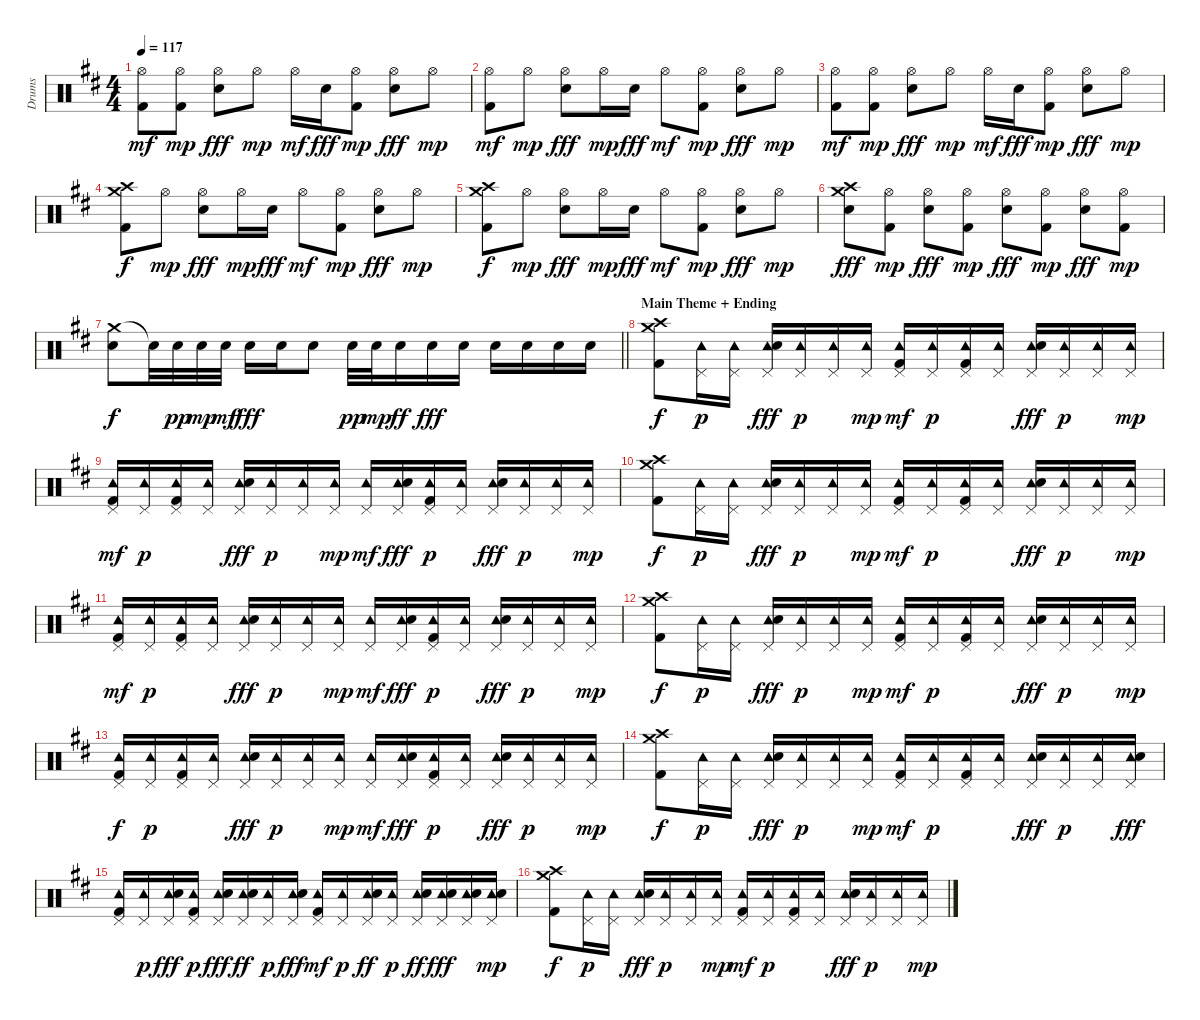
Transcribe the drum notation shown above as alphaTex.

\track ("Drums" "Drums") {instrument percussion}
\staff {score}
\articulation defaults
\ts (4 4)
\tempo 117
\clef neutral
\ks d
("Hi-Hat (open)" "Kick (hit) 2").8{dy mf} ("Hi-Hat (open)" "Kick (hit) 2").8{dy mp} ("Hi-Hat (open)" "Electric Snare (hit)").8{dy fff} "Hi-Hat (open)".8{dy mp} "Hi-Hat (open)".16{dy mf} "Electric Snare (hit)".16{dy fff} ("Hi-Hat (open)" "Kick (hit) 2").8{dy mp} ("Hi-Hat (open)" "Electric Snare (hit)").8{dy fff} "Hi-Hat (open)".8{dy mp} |
("Hi-Hat (open)" "Kick (hit) 2").8{dy mf} "Hi-Hat (open)".8{dy mp} ("Hi-Hat (open)" "Electric Snare (hit)").8{dy fff} "Hi-Hat (open)".16{dy mp} "Electric Snare (hit)".16{dy fff} "Hi-Hat (open)".8{dy mf} ("Hi-Hat (open)" "Kick (hit) 2").8{dy mp} ("Hi-Hat (open)" "Electric Snare (hit)").8{dy fff} "Hi-Hat (open)".8{dy mp} |
("Hi-Hat (open)" "Kick (hit) 2").8{dy mf} ("Hi-Hat (open)" "Kick (hit) 2").8{dy mp} ("Hi-Hat (open)" "Electric Snare (hit)").8{dy fff} "Hi-Hat (open)".8{dy mp} "Hi-Hat (open)".16{dy mf} "Electric Snare (hit)".16{dy fff} ("Hi-Hat (open)" "Kick (hit) 2").8{dy mp} ("Hi-Hat (open)" "Electric Snare (hit)").8{dy fff} "Hi-Hat (open)".8{dy mp} |
("Crash medium (hit)" "Crash high (hit)" "Kick (hit) 2").8{dy f} "Hi-Hat (open)".8{dy mp} ("Hi-Hat (open)" "Electric Snare (hit)").8{dy fff} "Hi-Hat (open)".16{dy mp} "Electric Snare (hit)".16{dy fff} "Hi-Hat (open)".8{dy mf} ("Hi-Hat (open)" "Kick (hit) 2").8{dy mp} ("Hi-Hat (open)" "Electric Snare (hit)").8{dy fff} "Hi-Hat (open)".8{dy mp} |
("Crash medium (hit)" "Kick (hit) 2" "Crash high (hit)").8{dy f} "Hi-Hat (open)".8{dy mp} ("Hi-Hat (open)" "Electric Snare (hit)").8{dy fff} "Hi-Hat (open)".16{dy mp} "Electric Snare (hit)".16{dy fff} "Hi-Hat (open)".8{dy mf} ("Hi-Hat (open)" "Kick (hit) 2").8{dy mp} ("Hi-Hat (open)" "Electric Snare (hit)").8{dy fff} "Hi-Hat (open)".8{dy mp} |
("Crash high (hit)" "Crash medium (hit)" "Electric Snare (hit)").8{dy fff} ("Hi-Hat (open)" "Kick (hit) 2").8{dy mp} ("Hi-Hat (open)" "Electric Snare (hit)").8{dy fff} ("Hi-Hat (open)" "Kick (hit) 2").8{dy mp} ("Hi-Hat (open)" "Electric Snare (hit)").8{dy fff} ("Hi-Hat (open)" "Kick (hit) 2").8{dy mp} ("Hi-Hat (open)" "Electric Snare (hit)").8{dy fff} ("Hi-Hat (open)" "Kick (hit) 2").8{dy mp} |
\barLineRight lightlight
("Crash medium (hit)" "Electric Snare (hit)").8{dy f} "Snare (hit)"{t}.32 "Electric Snare (hit)".32{dy pp} "Electric Snare (hit)".32{dy mp} "Electric Snare (hit)".32{dy mf} "Electric Snare (hit)".16{dy fff} "Electric Snare (hit)".16 "Electric Snare (hit)".8 "Electric Snare (hit)".32{dy pp} "Electric Snare (hit)".32{dy mp} "Electric Snare (hit)".16{dy ff} "Electric Snare (hit)".16{dy fff} "Electric Snare (hit)".16 "Electric Snare (hit)".16 "Electric Snare (hit)".16 "Electric Snare (hit)".16 "Electric Snare (hit)".16 |
\section ("" "Main Theme + Ending")
("Crash medium (hit)" "Crash high (hit)" "Kick (hit) 2").8{dy f} ("Tambourine (hit)" "Pedal Hi-Hat (hit)").16{dy p} ("Tambourine (hit)" "Pedal Hi-Hat (hit)").16 ("Tambourine (hit)" "Pedal Hi-Hat (hit)" "Electric Snare (hit)").16{dy fff} ("Tambourine (hit)" "Pedal Hi-Hat (hit)").16{dy p} ("Tambourine (hit)" "Pedal Hi-Hat (hit)").16 ("Tambourine (hit)" "Pedal Hi-Hat (hit)").16{dy mp} ("Pedal Hi-Hat (hit)" "Tambourine (hit)" "Kick (hit) 2").16{dy mf} ("Tambourine (hit)" "Pedal Hi-Hat (hit)").16{dy p} ("Pedal Hi-Hat (hit)" "Tambourine (hit)" "Kick (hit) 2").16 ("Pedal Hi-Hat (hit)" "Tambourine (hit)").16 ("Tambourine (hit)" "Pedal Hi-Hat (hit)" "Electric Snare (hit)").16{dy fff} ("Pedal Hi-Hat (hit)" "Tambourine (hit)").16{dy p} ("Pedal Hi-Hat (hit)" "Tambourine (hit)").16 ("Tambourine (hit)" "Pedal Hi-Hat (hit)").16{dy mp} |
("Tambourine (hit)" "Pedal Hi-Hat (hit)" "Kick (hit) 2").16{dy mf} ("Tambourine (hit)" "Pedal Hi-Hat (hit)").16{dy p} ("Pedal Hi-Hat (hit)" "Tambourine (hit)" "Kick (hit) 2").16 ("Tambourine (hit)" "Pedal Hi-Hat (hit)").16 ("Pedal Hi-Hat (hit)" "Tambourine (hit)" "Electric Snare (hit)").16{dy fff} ("Pedal Hi-Hat (hit)" "Tambourine (hit)").16{dy p} ("Tambourine (hit)" "Pedal Hi-Hat (hit)").16 ("Tambourine (hit)" "Pedal Hi-Hat (hit)").16{dy mp} ("Pedal Hi-Hat (hit)" "Tambourine (hit)").16{dy mf} ("Pedal Hi-Hat (hit)" "Tambourine (hit)" "Electric Snare (hit)").16{dy fff} ("Tambourine (hit)" "Pedal Hi-Hat (hit)" "Kick (hit) 2").16{dy p} ("Tambourine (hit)" "Pedal Hi-Hat (hit)").16 ("Pedal Hi-Hat (hit)" "Tambourine (hit)" "Electric Snare (hit)").16{dy fff} ("Tambourine (hit)" "Pedal Hi-Hat (hit)").16{dy p} ("Tambourine (hit)" "Pedal Hi-Hat (hit)").16 ("Pedal Hi-Hat (hit)" "Tambourine (hit)").16{dy mp} |
("Crash high (hit)" "Crash medium (hit)" "Kick (hit) 2").8{dy f} ("Tambourine (hit)" "Pedal Hi-Hat (hit)").16{dy p} ("Pedal Hi-Hat (hit)" "Tambourine (hit)").16 ("Pedal Hi-Hat (hit)" "Tambourine (hit)" "Electric Snare (hit)").16{dy fff} ("Pedal Hi-Hat (hit)" "Tambourine (hit)").16{dy p} ("Pedal Hi-Hat (hit)" "Tambourine (hit)").16 ("Pedal Hi-Hat (hit)" "Tambourine (hit)").16{dy mp} ("Pedal Hi-Hat (hit)" "Tambourine (hit)" "Kick (hit) 2").16{dy mf} ("Pedal Hi-Hat (hit)" "Tambourine (hit)").16{dy p} ("Pedal Hi-Hat (hit)" "Tambourine (hit)" "Kick (hit) 2").16 ("Pedal Hi-Hat (hit)" "Tambourine (hit)").16 ("Pedal Hi-Hat (hit)" "Tambourine (hit)" "Electric Snare (hit)").16{dy fff} ("Tambourine (hit)" "Pedal Hi-Hat (hit)").16{dy p} ("Tambourine (hit)" "Pedal Hi-Hat (hit)").16 ("Pedal Hi-Hat (hit)" "Tambourine (hit)").16{dy mp} |
("Tambourine (hit)" "Pedal Hi-Hat (hit)" "Kick (hit) 2").16{dy mf} ("Tambourine (hit)" "Pedal Hi-Hat (hit)").16{dy p} ("Pedal Hi-Hat (hit)" "Tambourine (hit)" "Kick (hit) 2").16 ("Tambourine (hit)" "Pedal Hi-Hat (hit)").16 ("Tambourine (hit)" "Pedal Hi-Hat (hit)" "Electric Snare (hit)").16{dy fff} ("Pedal Hi-Hat (hit)" "Tambourine (hit)").16{dy p} ("Tambourine (hit)" "Pedal Hi-Hat (hit)").16 ("Pedal Hi-Hat (hit)" "Tambourine (hit)").16{dy mp} ("Tambourine (hit)" "Pedal Hi-Hat (hit)").16{dy mf} ("Pedal Hi-Hat (hit)" "Tambourine (hit)" "Electric Snare (hit)").16{dy fff} ("Pedal Hi-Hat (hit)" "Tambourine (hit)" "Kick (hit) 2").16{dy p} ("Tambourine (hit)" "Pedal Hi-Hat (hit)").16 ("Pedal Hi-Hat (hit)" "Tambourine (hit)" "Electric Snare (hit)").16{dy fff} ("Pedal Hi-Hat (hit)" "Tambourine (hit)").16{dy p} ("Tambourine (hit)" "Pedal Hi-Hat (hit)").16 ("Tambourine (hit)" "Pedal Hi-Hat (hit)").16{dy mp} |
("Crash medium (hit)" "Crash high (hit)" "Kick (hit) 2").8{dy f} ("Pedal Hi-Hat (hit)" "Tambourine (hit)").16{dy p} ("Pedal Hi-Hat (hit)" "Tambourine (hit)").16 ("Tambourine (hit)" "Pedal Hi-Hat (hit)" "Electric Snare (hit)").16{dy fff} ("Pedal Hi-Hat (hit)" "Tambourine (hit)").16{dy p} ("Pedal Hi-Hat (hit)" "Tambourine (hit)").16 ("Tambourine (hit)" "Pedal Hi-Hat (hit)").16{dy mp} ("Pedal Hi-Hat (hit)" "Tambourine (hit)" "Kick (hit) 2").16{dy mf} ("Pedal Hi-Hat (hit)" "Tambourine (hit)").16{dy p} ("Pedal Hi-Hat (hit)" "Tambourine (hit)" "Kick (hit) 2").16 ("Tambourine (hit)" "Pedal Hi-Hat (hit)").16 ("Pedal Hi-Hat (hit)" "Tambourine (hit)" "Electric Snare (hit)").16{dy fff} ("Tambourine (hit)" "Pedal Hi-Hat (hit)").16{dy p} ("Pedal Hi-Hat (hit)" "Tambourine (hit)").16 ("Pedal Hi-Hat (hit)" "Tambourine (hit)").16{dy mp} |
("Pedal Hi-Hat (hit)" "Tambourine (hit)" "Kick (hit) 2").16{dy f} ("Pedal Hi-Hat (hit)" "Tambourine (hit)").16{dy p} ("Tambourine (hit)" "Pedal Hi-Hat (hit)" "Kick (hit) 2").16 ("Tambourine (hit)" "Pedal Hi-Hat (hit)").16 ("Pedal Hi-Hat (hit)" "Tambourine (hit)" "Electric Snare (hit)").16{dy fff} ("Pedal Hi-Hat (hit)" "Tambourine (hit)").16{dy p} ("Pedal Hi-Hat (hit)" "Tambourine (hit)").16 ("Pedal Hi-Hat (hit)" "Tambourine (hit)").16{dy mp} ("Tambourine (hit)" "Pedal Hi-Hat (hit)").16{dy mf} ("Tambourine (hit)" "Pedal Hi-Hat (hit)" "Electric Snare (hit)").16{dy fff} ("Pedal Hi-Hat (hit)" "Tambourine (hit)" "Kick (hit) 2").16{dy p} ("Pedal Hi-Hat (hit)" "Tambourine (hit)").16 ("Tambourine (hit)" "Pedal Hi-Hat (hit)" "Electric Snare (hit)").16{dy fff} ("Pedal Hi-Hat (hit)" "Tambourine (hit)").16{dy p} ("Tambourine (hit)" "Pedal Hi-Hat (hit)").16 ("Tambourine (hit)" "Pedal Hi-Hat (hit)").16{dy mp} |
("Crash medium (hit)" "Crash high (hit)" "Kick (hit) 2").8{dy f} ("Pedal Hi-Hat (hit)" "Tambourine (hit)").16{dy p} ("Pedal Hi-Hat (hit)" "Tambourine (hit)").16 ("Tambourine (hit)" "Pedal Hi-Hat (hit)" "Electric Snare (hit)").16{dy fff} ("Pedal Hi-Hat (hit)" "Tambourine (hit)").16{dy p} ("Tambourine (hit)" "Pedal Hi-Hat (hit)").16 ("Tambourine (hit)" "Pedal Hi-Hat (hit)").16{dy mp} ("Pedal Hi-Hat (hit)" "Tambourine (hit)" "Kick (hit) 2").16{dy mf} ("Pedal Hi-Hat (hit)" "Tambourine (hit)").16{dy p} ("Pedal Hi-Hat (hit)" "Tambourine (hit)" "Kick (hit) 2").16 ("Pedal Hi-Hat (hit)" "Tambourine (hit)").16 ("Pedal Hi-Hat (hit)" "Tambourine (hit)" "Electric Snare (hit)").16{dy fff} ("Tambourine (hit)" "Pedal Hi-Hat (hit)").16{dy p} ("Pedal Hi-Hat (hit)" "Tambourine (hit)").16 ("Tambourine (hit)" "Pedal Hi-Hat (hit)" "Electric Snare (hit)").16{dy fff} |
("Tambourine (hit)" "Pedal Hi-Hat (hit)" "Kick (hit) 2").16 ("Pedal Hi-Hat (hit)" "Tambourine (hit)").16{dy p} ("Tambourine (hit)" "Pedal Hi-Hat (hit)" "Electric Snare (hit)").16{dy fff} ("Pedal Hi-Hat (hit)" "Tambourine (hit)" "Kick (hit) 2").16{dy p} ("Tambourine (hit)" "Pedal Hi-Hat (hit)" "Electric Snare (hit)").16{dy fff} ("Tambourine (hit)" "Pedal Hi-Hat (hit)" "Snare (hit) 2").16{dy ff} ("Pedal Hi-Hat (hit)" "Tambourine (hit)").16{dy p} ("Pedal Hi-Hat (hit)" "Tambourine (hit)" "Electric Snare (hit)").16{dy fff} ("Pedal Hi-Hat (hit)" "Tambourine (hit)" "Kick (hit) 2").16{dy mf} ("Tambourine (hit)" "Pedal Hi-Hat (hit)").16{dy p} ("Pedal Hi-Hat (hit)" "Tambourine (hit)" "Electric Snare (hit)").16{dy ff} ("Pedal Hi-Hat (hit)" "Tambourine (hit)").16{dy p} ("Pedal Hi-Hat (hit)" "Tambourine (hit)" "Electric Snare (hit)").16{dy ff} ("Tambourine (hit)" "Pedal Hi-Hat (hit)" "Electric Snare (hit)").16{dy fff} ("Pedal Hi-Hat (hit)" "Tambourine (hit)" "Electric Snare (hit)").16 ("Pedal Hi-Hat (hit)" "Tambourine (hit)" "Electric Snare (hit)").16{dy mp} |
("Crash high (hit)" "Crash medium (hit)" "Kick (hit) 2").8{dy f} ("Tambourine (hit)" "Pedal Hi-Hat (hit)").16{dy p} ("Tambourine (hit)" "Pedal Hi-Hat (hit)").16 ("Pedal Hi-Hat (hit)" "Tambourine (hit)" "Electric Snare (hit)").16{dy fff} ("Pedal Hi-Hat (hit)" "Tambourine (hit)").16{dy p} ("Tambourine (hit)" "Pedal Hi-Hat (hit)").16 ("Pedal Hi-Hat (hit)" "Tambourine (hit)").16{dy mp} ("Tambourine (hit)" "Pedal Hi-Hat (hit)" "Kick (hit) 2").16{dy mf} ("Pedal Hi-Hat (hit)" "Tambourine (hit)").16{dy p} ("Pedal Hi-Hat (hit)" "Tambourine (hit)" "Kick (hit) 2").16 ("Tambourine (hit)" "Pedal Hi-Hat (hit)").16 ("Tambourine (hit)" "Pedal Hi-Hat (hit)" "Electric Snare (hit)").16{dy fff} ("Tambourine (hit)" "Pedal Hi-Hat (hit)").16{dy p} ("Pedal Hi-Hat (hit)" "Tambourine (hit)").16 ("Pedal Hi-Hat (hit)" "Tambourine (hit)").16{dy mp}
